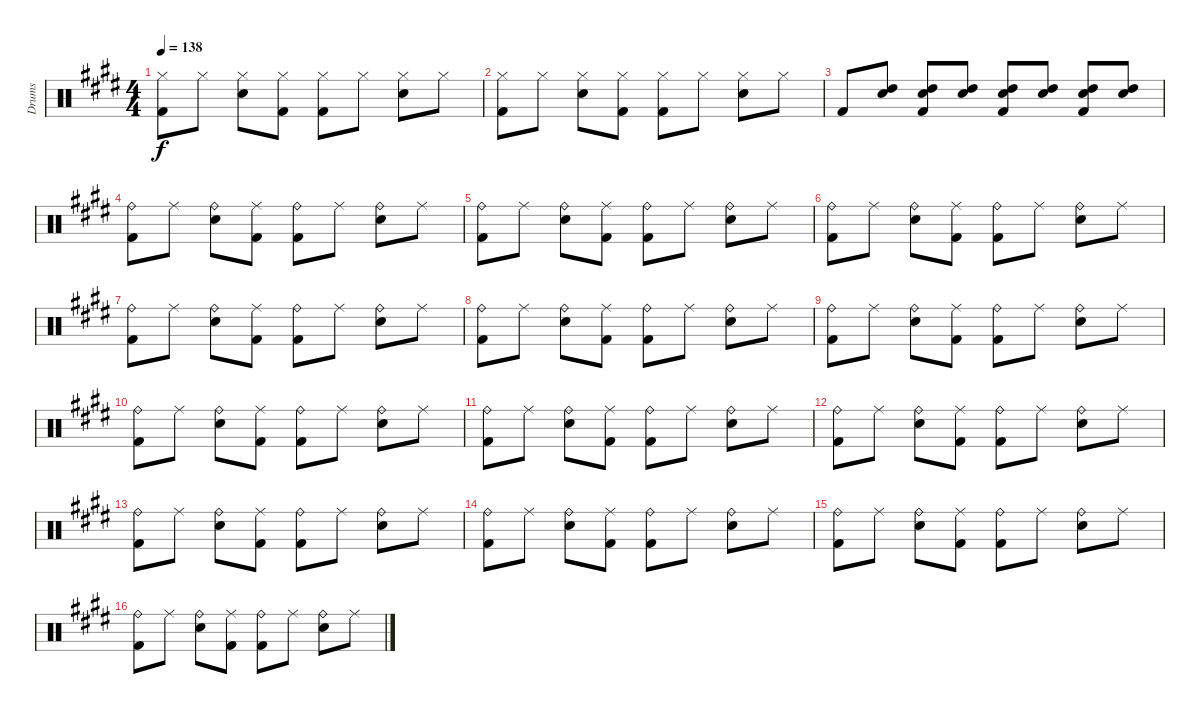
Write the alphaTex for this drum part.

\track ("Drums" "Drums") {instrument percussion}
\staff {score}
\articulation defaults
\ts (4 4)
\tempo 138
\clef neutral
\ks e
("Hi-Hat (closed)" "Kick (hit) 2").8{dy f} "Hi-Hat (closed)".8 ("Hi-Hat (closed)" "Snare (hit) 2").8 ("Hi-Hat (closed)" "Kick (hit) 2").8 ("Hi-Hat (closed)" "Kick (hit) 2").8 "Hi-Hat (closed)".8 ("Hi-Hat (closed)" "Snare (hit) 2").8 "Hi-Hat (closed)".8 |
("Hi-Hat (closed)" "Kick (hit) 2").8 "Hi-Hat (closed)".8 ("Hi-Hat (closed)" "Snare (hit) 2").8 ("Hi-Hat (closed)" "Kick (hit) 2").8 ("Hi-Hat (closed)" "Kick (hit) 2").8 "Hi-Hat (closed)".8 ("Hi-Hat (closed)" "Snare (hit) 2").8 "Hi-Hat (closed)".8 |
"Kick (hit) 2".8 ("High Tom (hit)" "Snare (hit) 2").8 ("High Tom (hit)" "Snare (hit) 2" "Kick (hit) 2").8 ("High Tom (hit)" "Snare (hit) 2").8 ("High Tom (hit)" "Snare (hit) 2" "Kick (hit) 2").8 ("High Tom (hit)" "Snare (hit) 2").8 ("High Tom (hit)" "Snare (hit) 2" "Kick (hit) 2").8 ("High Tom (hit)" "Snare (hit) 2").8 |
("Ride (bell)" "Kick (hit) 2").8 "Ride (middle)".8 ("Ride (bell)" "Snare (hit) 2").8 ("Ride (middle)" "Kick (hit) 2").8 ("Ride (bell)" "Kick (hit) 2").8 "Ride (middle)".8 ("Ride (bell)" "Snare (hit) 2").8 "Ride (middle)".8 |
("Ride (bell)" "Kick (hit) 2").8 "Ride (middle)".8 ("Ride (bell)" "Snare (hit) 2").8 ("Ride (middle)" "Kick (hit) 2").8 ("Ride (bell)" "Kick (hit) 2").8 "Ride (middle)".8 ("Ride (bell)" "Snare (hit) 2").8 "Ride (middle)".8 |
("Ride (bell)" "Kick (hit) 2").8 "Ride (middle)".8 ("Ride (bell)" "Snare (hit) 2").8 ("Ride (middle)" "Kick (hit) 2").8 ("Ride (bell)" "Kick (hit) 2").8 "Ride (middle)".8 ("Ride (bell)" "Snare (hit) 2").8 "Ride (middle)".8 |
("Ride (bell)" "Kick (hit) 2").8 "Ride (middle)".8 ("Ride (bell)" "Snare (hit) 2").8 ("Ride (middle)" "Kick (hit) 2").8 ("Ride (bell)" "Kick (hit) 2").8 "Ride (middle)".8 ("Ride (bell)" "Snare (hit) 2").8 "Ride (middle)".8 |
("Ride (bell)" "Kick (hit) 2").8 "Ride (middle)".8 ("Ride (bell)" "Snare (hit) 2").8 ("Ride (middle)" "Kick (hit) 2").8 ("Ride (bell)" "Kick (hit) 2").8 "Ride (middle)".8 ("Ride (bell)" "Snare (hit) 2").8 "Ride (middle)".8 |
("Ride (bell)" "Kick (hit) 2").8 "Ride (middle)".8 ("Ride (bell)" "Snare (hit) 2").8 ("Ride (middle)" "Kick (hit) 2").8 ("Ride (bell)" "Kick (hit) 2").8 "Ride (middle)".8 ("Ride (bell)" "Snare (hit) 2").8 "Ride (middle)".8 |
("Ride (bell)" "Kick (hit) 2").8 "Ride (middle)".8 ("Ride (bell)" "Snare (hit) 2").8 ("Ride (middle)" "Kick (hit) 2").8 ("Ride (bell)" "Kick (hit) 2").8 "Ride (middle)".8 ("Ride (bell)" "Snare (hit) 2").8 "Ride (middle)".8 |
("Ride (bell)" "Kick (hit) 2").8 "Ride (middle)".8 ("Ride (bell)" "Snare (hit) 2").8 ("Ride (middle)" "Kick (hit) 2").8 ("Ride (bell)" "Kick (hit) 2").8 "Ride (middle)".8 ("Ride (bell)" "Snare (hit) 2").8 "Ride (middle)".8 |
("Ride (bell)" "Kick (hit) 2").8 "Ride (middle)".8 ("Ride (bell)" "Snare (hit) 2").8 ("Ride (middle)" "Kick (hit) 2").8 ("Ride (bell)" "Kick (hit) 2").8 "Ride (middle)".8 ("Ride (bell)" "Snare (hit) 2").8 "Ride (middle)".8 |
("Ride (bell)" "Kick (hit) 2").8 "Ride (middle)".8 ("Ride (bell)" "Snare (hit) 2").8 ("Ride (middle)" "Kick (hit) 2").8 ("Ride (bell)" "Kick (hit) 2").8 "Ride (middle)".8 ("Ride (bell)" "Snare (hit) 2").8 "Ride (middle)".8 |
("Ride (bell)" "Kick (hit) 2").8 "Ride (middle)".8 ("Ride (bell)" "Snare (hit) 2").8 ("Ride (middle)" "Kick (hit) 2").8 ("Ride (bell)" "Kick (hit) 2").8 "Ride (middle)".8 ("Ride (bell)" "Snare (hit) 2").8 "Ride (middle)".8 |
("Ride (bell)" "Kick (hit) 2").8 "Ride (middle)".8 ("Ride (bell)" "Snare (hit) 2").8 ("Ride (middle)" "Kick (hit) 2").8 ("Ride (bell)" "Kick (hit) 2").8 "Ride (middle)".8 ("Ride (bell)" "Snare (hit) 2").8 "Ride (middle)".8 |
("Ride (bell)" "Kick (hit) 2").8 "Ride (middle)".8 ("Ride (bell)" "Snare (hit) 2").8 ("Ride (middle)" "Kick (hit) 2").8 ("Ride (bell)" "Kick (hit) 2").8 "Ride (middle)".8 ("Ride (bell)" "Snare (hit) 2").8 "Ride (middle)".8
